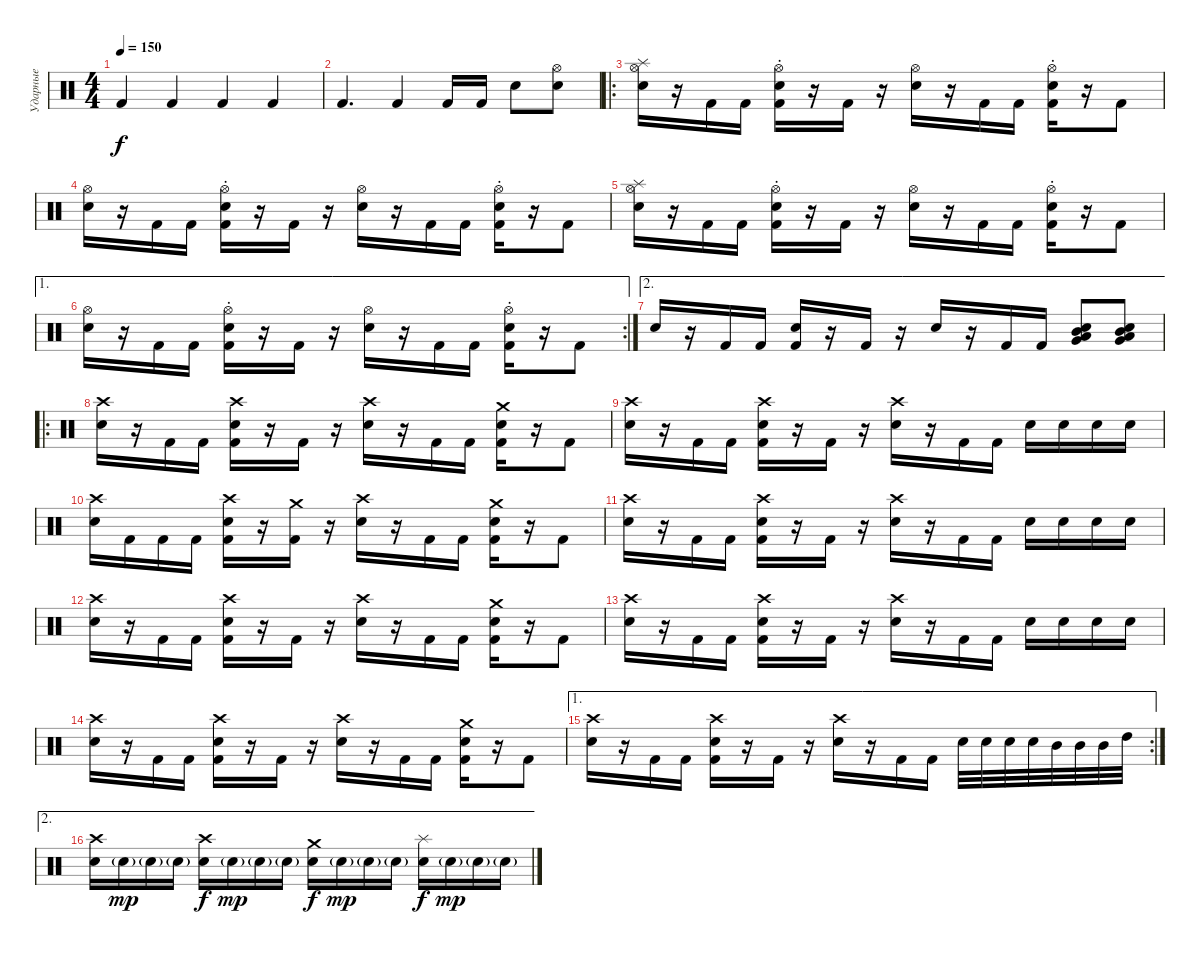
\track ("Ударные" "Ударные") {instrument percussion}
\staff {score}
\articulation defaults
\ts (4 4)
\tempo 150
\clef neutral
\ks c "Kick (hit) 2".4{dy f} "Kick (hit) 2".4 "Kick (hit) 2".4 "Kick (hit) 2".4
|
"Kick (hit) 2".4{d} "Kick (hit) 2".4 "Kick (hit) 2".16 "Kick (hit) 2".16 "Electric Snare (hit)".8 ("Hi-Hat (open)" "Electric Snare (hit)").8 |
\ro
("Hi-Hat (open)" "Electric Snare (hit)" "Splash (hit)").16 r.16 "Kick (hit) 2".16 "Kick (hit) 2".16 ("Hi-Hat (open)"{st} "Electric Snare (hit)" "Kick (hit) 2").16 r.16 "Kick (hit) 2".16 r.16 ("Hi-Hat (open)" "Electric Snare (hit)").16 r.16 "Kick (hit) 2".16 "Kick (hit) 2".16 ("Hi-Hat (open)"{st} "Electric Snare (hit)" "Kick (hit) 2").16 r.16 "Kick (hit) 2".8 |
("Hi-Hat (open)" "Electric Snare (hit)").16 r.16 "Kick (hit) 2".16 "Kick (hit) 2".16 ("Hi-Hat (open)"{st} "Electric Snare (hit)" "Kick (hit) 2").16 r.16 "Kick (hit) 2".16 r.16 ("Hi-Hat (open)" "Electric Snare (hit)").16 r.16 "Kick (hit) 2".16 "Kick (hit) 2".16 ("Hi-Hat (open)"{st} "Electric Snare (hit)" "Kick (hit) 2").16 r.16 "Kick (hit) 2".8 |
("Hi-Hat (open)" "Electric Snare (hit)" "Splash (hit)").16 r.16 "Kick (hit) 2".16 "Kick (hit) 2".16 ("Hi-Hat (open)"{st} "Electric Snare (hit)" "Kick (hit) 2").16 r.16 "Kick (hit) 2".16 r.16 ("Hi-Hat (open)" "Electric Snare (hit)").16 r.16 "Kick (hit) 2".16 "Kick (hit) 2".16 ("Hi-Hat (open)"{st} "Electric Snare (hit)" "Kick (hit) 2").16 r.16 "Kick (hit) 2".8 |
\ae 1
\rc 2
("Hi-Hat (open)" "Electric Snare (hit)").16 r.16 "Kick (hit) 2".16 "Kick (hit) 2".16 ("Hi-Hat (open)"{st} "Electric Snare (hit)" "Kick (hit) 2").16 r.16 "Kick (hit) 2".16 r.16 ("Hi-Hat (open)" "Electric Snare (hit)").16 r.16 "Kick (hit) 2".16 "Kick (hit) 2".16 ("Hi-Hat (open)"{st} "Electric Snare (hit)" "Kick (hit) 2").16 r.16 "Kick (hit) 2".8 |
\ae 2 "Electric Snare (hit)".16
r.16 "Kick (hit) 2".16 "Kick (hit) 2".16 ("Electric Snare (hit)" "Kick (hit) 2").16 r.16 "Kick (hit) 2".16 r.16 "Electric Snare (hit)".16 r.16 "Kick (hit) 2".16 "Kick (hit) 2".16 ("Low Floor Tom (hit)" "Mid Tom (hit)" "Very Low Tom (hit)" "Electric Snare (hit)").8 ("Low Floor Tom (hit)" "Mid Tom (hit)" "Very Low Tom (hit)" "Electric Snare (hit)").8 |
\ro
("Crash high (hit)" "Electric Snare (hit)").16 r.16 "Kick (hit) 2".16 "Kick (hit) 2".16 ("Crash high (hit)" "Electric Snare (hit)" "Kick (hit) 2").16 r.16 "Kick (hit) 2".16 r.16 ("Crash high (hit)" "Electric Snare (hit)").16 r.16 "Kick (hit) 2".16 "Kick (hit) 2".16 ("Crash medium (hit)" "Electric Snare (hit)" "Kick (hit) 2").16 r.16 "Kick (hit) 2".8 |
("Crash high (hit)" "Electric Snare (hit)").16 r.16 "Kick (hit) 2".16 "Kick (hit) 2".16 ("Crash high (hit)" "Electric Snare (hit)" "Kick (hit) 2").16 r.16 "Kick (hit) 2".16 r.16 ("Crash high (hit)" "Electric Snare (hit)").16 r.16 "Kick (hit) 2".16 "Kick (hit) 2".16 "Electric Snare (hit)".16 "Electric Snare (hit)".16 "Electric Snare (hit)".16 "Electric Snare (hit)".16 |
("Crash high (hit)" "Electric Snare (hit)").16 "Kick (hit) 2".16 "Kick (hit) 2".16 "Kick (hit) 2".16 ("Crash high (hit)" "Electric Snare (hit)" "Kick (hit) 2").16 r.16 ("Crash medium (hit)" "Kick (hit) 2").16 r.16 ("Crash high (hit)" "Electric Snare (hit)").16 r.16 "Kick (hit) 2".16 "Kick (hit) 2".16 ("Crash medium (hit)" "Electric Snare (hit)" "Kick (hit) 2").16 r.16 "Kick (hit) 2".8 |
("Crash high (hit)" "Electric Snare (hit)").16 r.16 "Kick (hit) 2".16 "Kick (hit) 2".16 ("Crash high (hit)" "Electric Snare (hit)" "Kick (hit) 2").16 r.16 "Kick (hit) 2".16 r.16 ("Crash high (hit)" "Electric Snare (hit)").16 r.16 "Kick (hit) 2".16 "Kick (hit) 2".16 "Electric Snare (hit)".16 "Electric Snare (hit)".16 "Electric Snare (hit)".16 "Electric Snare (hit)".16 |
("Crash high (hit)" "Electric Snare (hit)").16 r.16 "Kick (hit) 2".16 "Kick (hit) 2".16 ("Crash high (hit)" "Electric Snare (hit)" "Kick (hit) 2").16 r.16 "Kick (hit) 2".16 r.16 ("Crash high (hit)" "Electric Snare (hit)").16 r.16 "Kick (hit) 2".16 "Kick (hit) 2".16 ("Crash medium (hit)" "Electric Snare (hit)" "Kick (hit) 2").16 r.16 "Kick (hit) 2".8 |
("Crash high (hit)" "Electric Snare (hit)").16 r.16 "Kick (hit) 2".16 "Kick (hit) 2".16 ("Crash high (hit)" "Electric Snare (hit)" "Kick (hit) 2").16 r.16 "Kick (hit) 2".16 r.16 ("Crash high (hit)" "Electric Snare (hit)").16 r.16 "Kick (hit) 2".16 "Kick (hit) 2".16 "Electric Snare (hit)".16 "Electric Snare (hit)".16 "Electric Snare (hit)".16 "Electric Snare (hit)".16 |
("Crash high (hit)" "Electric Snare (hit)").16 r.16 "Kick (hit) 2".16 "Kick (hit) 2".16 ("Crash high (hit)" "Electric Snare (hit)" "Kick (hit) 2").16 r.16 "Kick (hit) 2".16 r.16 ("Crash high (hit)" "Electric Snare (hit)").16 r.16 "Kick (hit) 2".16 "Kick (hit) 2".16 ("Crash medium (hit)" "Electric Snare (hit)" "Kick (hit) 2").16 r.16 "Kick (hit) 2".8 |
\ae 1
\rc 2
("Crash high (hit)" "Electric Snare (hit)").16 r.16 "Kick (hit) 2".16 "Kick (hit) 2".16 ("Crash high (hit)" "Electric Snare (hit)" "Kick (hit) 2").16 r.16 "Kick (hit) 2".16 r.16 ("Crash high (hit)" "Electric Snare (hit)").16 r.16 "Kick (hit) 2".16 "Kick (hit) 2".16 "Electric Snare (hit)".32 "Electric Snare (hit)".32 "Electric Snare (hit)".32 "Electric Snare (hit)".32 "Mid Tom (hit)".32 "Mid Tom (hit)".32 "Mid Tom (hit)".32 "High Tom (hit)".32 |
\ae 2
("Crash high (hit)" "Electric Snare (hit)").16 "Electric Snare (hit)"{g}.16{dy mp} "Electric Snare (hit)"{g}.16 "Electric Snare (hit)"{g}.16 ("Crash high (hit)" "Electric Snare (hit)").16{dy f} "Electric Snare (hit)"{g}.16{dy mp} "Electric Snare (hit)"{g}.16 "Electric Snare (hit)"{g}.16 ("Crash medium (hit)" "Electric Snare (hit)").16{dy f} "Electric Snare (hit)"{g}.16{dy mp} "Electric Snare (hit)"{g}.16 "Electric Snare (hit)"{g}.16 ("Splash (hit)" "Electric Snare (hit)").16{dy f} "Electric Snare (hit)"{g}.16{dy mp} "Electric Snare (hit)"{g}.16 "Electric Snare (hit)"{g}.16
